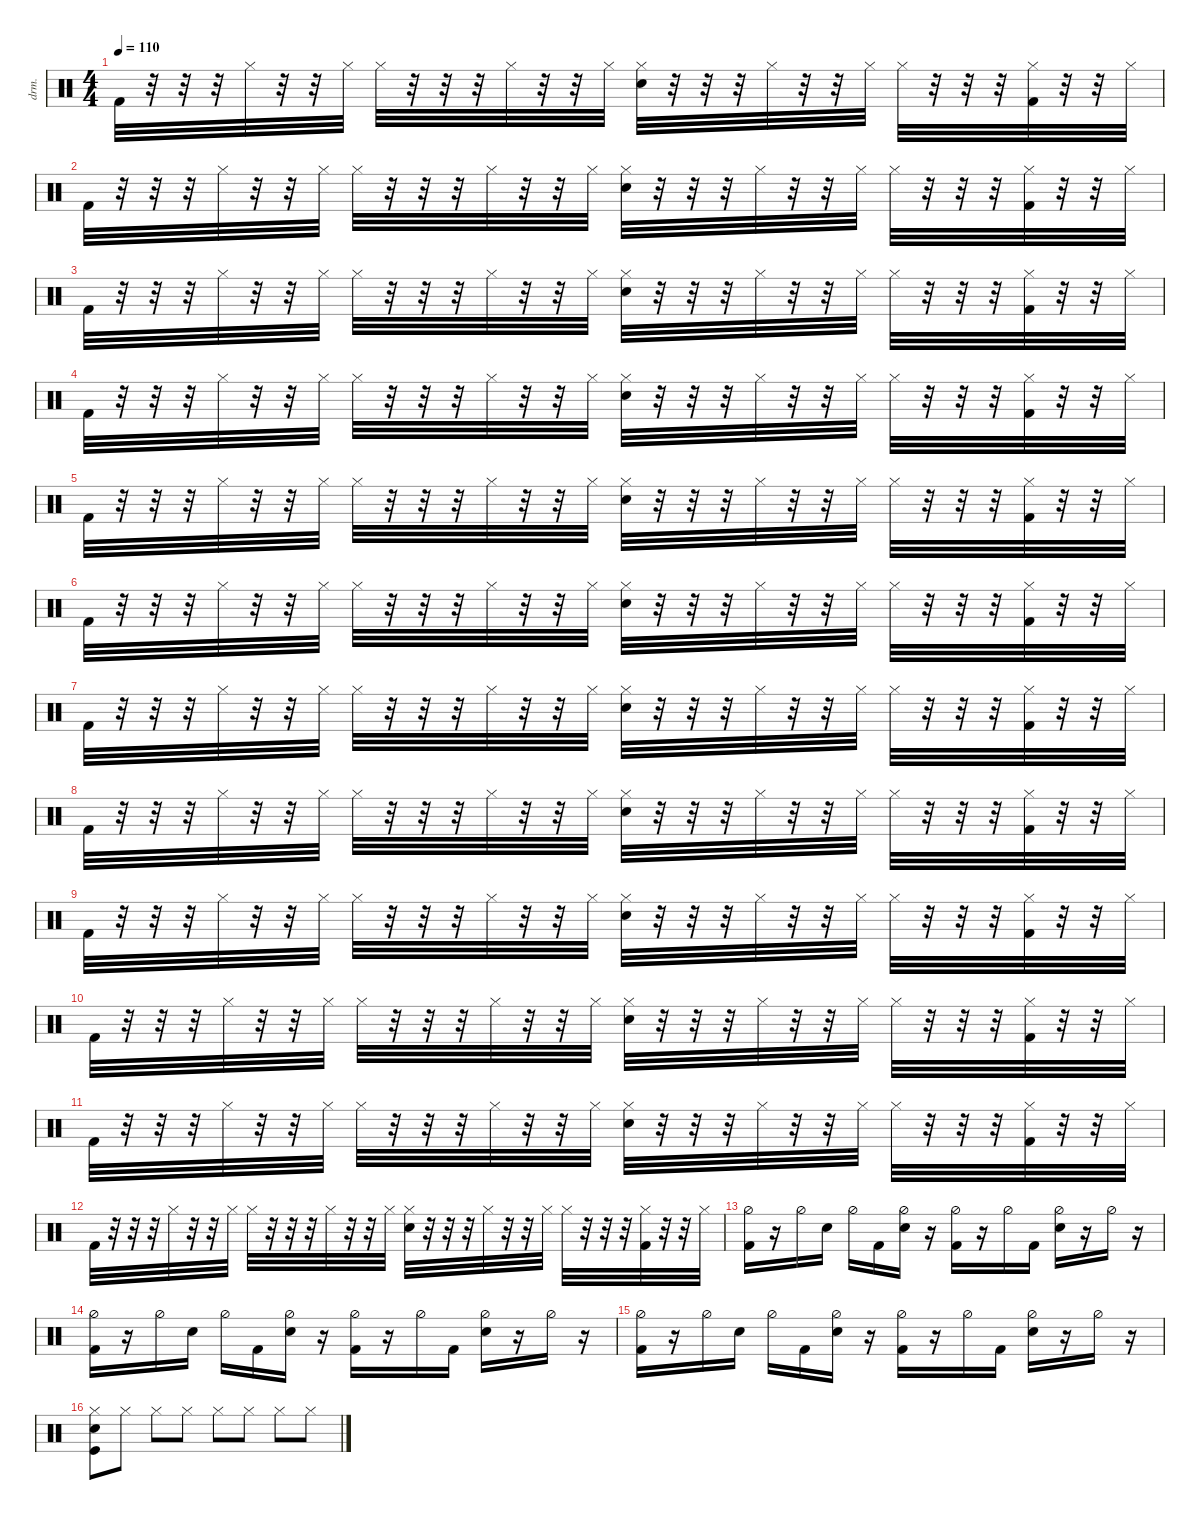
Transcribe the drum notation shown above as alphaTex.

\defaultSystemsLayout 4
\hideDynamics
\bracketExtendMode nobrackets
\otherSystemsTrackNameOrientation horizontal
\track ("Drumkit" "drm.") {instrument percussion}
\staff {score}
\articulation defaults
\ts (4 4)
\tempo 110
\clef neutral
\ks c "Kick (hit) 2".32{dy mf beam Down}
r.32{beam Down} r.32{beam Down} r.32{beam Down} "Hi-Hat (closed)".32{beam Down} r.32{beam Down} r.32{beam Down} "Hi-Hat (closed)".32{beam Down} "Hi-Hat (closed)".32{beam Down} r.32{beam Down} r.32{beam Down} r.32{beam Down} "Hi-Hat (closed)".32{beam Down} r.32{beam Down} r.32{beam Down} "Hi-Hat (closed)".32{beam Down} ("Snare (hit) 2" "Hi-Hat (closed)").32{beam Down} r.32{beam Down} r.32{beam Down} r.32{beam Down} "Hi-Hat (closed)".32{beam Down} r.32{beam Down} r.32{beam Down} "Hi-Hat (closed)".32{beam Down} "Hi-Hat (closed)".32{beam Down} r.32{beam Down} r.32{beam Down} r.32{beam Down} ("Hi-Hat (closed)" "Kick (hit) 2").32{beam Down} r.32{beam Down} r.32{beam Down} "Hi-Hat (closed)".32{beam Down} |
"Kick (hit) 2".32{beam Down} r.32{beam Down} r.32{beam Down} r.32{beam Down} "Hi-Hat (closed)".32{beam Down} r.32{beam Down} r.32{beam Down} "Hi-Hat (closed)".32{beam Down} "Hi-Hat (closed)".32{beam Down} r.32{beam Down} r.32{beam Down} r.32{beam Down} "Hi-Hat (closed)".32{beam Down} r.32{beam Down} r.32{beam Down} "Hi-Hat (closed)".32{beam Down} ("Snare (hit) 2" "Hi-Hat (closed)").32{beam Down} r.32{beam Down} r.32{beam Down} r.32{beam Down} "Hi-Hat (closed)".32{beam Down} r.32{beam Down} r.32{beam Down} "Hi-Hat (closed)".32{beam Down} "Hi-Hat (closed)".32{beam Down} r.32{beam Down} r.32{beam Down} r.32{beam Down} ("Hi-Hat (closed)" "Kick (hit) 2").32{beam Down} r.32{beam Down} r.32{beam Down} "Hi-Hat (closed)".32{beam Down} |
"Kick (hit) 2".32{beam Down} r.32{beam Down} r.32{beam Down} r.32{beam Down} "Hi-Hat (closed)".32{beam Down} r.32{beam Down} r.32{beam Down} "Hi-Hat (closed)".32{beam Down} "Hi-Hat (closed)".32{beam Down} r.32{beam Down} r.32{beam Down} r.32{beam Down} "Hi-Hat (closed)".32{beam Down} r.32{beam Down} r.32{beam Down} "Hi-Hat (closed)".32{beam Down} ("Snare (hit) 2" "Hi-Hat (closed)").32{beam Down} r.32{beam Down} r.32{beam Down} r.32{beam Down} "Hi-Hat (closed)".32{beam Down} r.32{beam Down} r.32{beam Down} "Hi-Hat (closed)".32{beam Down} "Hi-Hat (closed)".32{beam Down} r.32{beam Down} r.32{beam Down} r.32{beam Down} ("Hi-Hat (closed)" "Kick (hit) 2").32{beam Down} r.32{beam Down} r.32{beam Down} "Hi-Hat (closed)".32{beam Down} |
"Kick (hit) 2".32{beam Down} r.32{beam Down} r.32{beam Down} r.32{beam Down} "Hi-Hat (closed)".32{beam Down} r.32{beam Down} r.32{beam Down} "Hi-Hat (closed)".32{beam Down} "Hi-Hat (closed)".32{beam Down} r.32{beam Down} r.32{beam Down} r.32{beam Down} "Hi-Hat (closed)".32{beam Down} r.32{beam Down} r.32{beam Down} "Hi-Hat (closed)".32{beam Down} ("Snare (hit) 2" "Hi-Hat (closed)").32{beam Down} r.32{beam Down} r.32{beam Down} r.32{beam Down} "Hi-Hat (closed)".32{beam Down} r.32{beam Down} r.32{beam Down} "Hi-Hat (closed)".32{beam Down} "Hi-Hat (closed)".32{beam Down} r.32{beam Down} r.32{beam Down} r.32{beam Down} ("Hi-Hat (closed)" "Kick (hit) 2").32{beam Down} r.32{beam Down} r.32{beam Down} "Hi-Hat (closed)".32{beam Down} |
"Kick (hit) 2".32{beam Down} r.32{beam Down} r.32{beam Down} r.32{beam Down} "Hi-Hat (closed)".32{beam Down} r.32{beam Down} r.32{beam Down} "Hi-Hat (closed)".32{beam Down} "Hi-Hat (closed)".32{beam Down} r.32{beam Down} r.32{beam Down} r.32{beam Down} "Hi-Hat (closed)".32{beam Down} r.32{beam Down} r.32{beam Down} "Hi-Hat (closed)".32{beam Down} ("Snare (hit) 2" "Hi-Hat (closed)").32{beam Down} r.32{beam Down} r.32{beam Down} r.32{beam Down} "Hi-Hat (closed)".32{beam Down} r.32{beam Down} r.32{beam Down} "Hi-Hat (closed)".32{beam Down} "Hi-Hat (closed)".32{beam Down} r.32{beam Down} r.32{beam Down} r.32{beam Down} ("Hi-Hat (closed)" "Kick (hit) 2").32{beam Down} r.32{beam Down} r.32{beam Down} "Hi-Hat (closed)".32{beam Down} |
"Kick (hit) 2".32{beam Down} r.32{beam Down} r.32{beam Down} r.32{beam Down} "Hi-Hat (closed)".32{beam Down} r.32{beam Down} r.32{beam Down} "Hi-Hat (closed)".32{beam Down} "Hi-Hat (closed)".32{beam Down} r.32{beam Down} r.32{beam Down} r.32{beam Down} "Hi-Hat (closed)".32{beam Down} r.32{beam Down} r.32{beam Down} "Hi-Hat (closed)".32{beam Down} ("Snare (hit) 2" "Hi-Hat (closed)").32{beam Down} r.32{beam Down} r.32{beam Down} r.32{beam Down} "Hi-Hat (closed)".32{beam Down} r.32{beam Down} r.32{beam Down} "Hi-Hat (closed)".32{beam Down} "Hi-Hat (closed)".32{beam Down} r.32{beam Down} r.32{beam Down} r.32{beam Down} ("Hi-Hat (closed)" "Kick (hit) 2").32{beam Down} r.32{beam Down} r.32{beam Down} "Hi-Hat (closed)".32{beam Down} |
"Kick (hit) 2".32{beam Down} r.32{beam Down} r.32{beam Down} r.32{beam Down} "Hi-Hat (closed)".32{beam Down} r.32{beam Down} r.32{beam Down} "Hi-Hat (closed)".32{beam Down} "Hi-Hat (closed)".32{beam Down} r.32{beam Down} r.32{beam Down} r.32{beam Down} "Hi-Hat (closed)".32{beam Down} r.32{beam Down} r.32{beam Down} "Hi-Hat (closed)".32{beam Down} ("Snare (hit) 2" "Hi-Hat (closed)").32{beam Down} r.32{beam Down} r.32{beam Down} r.32{beam Down} "Hi-Hat (closed)".32{beam Down} r.32{beam Down} r.32{beam Down} "Hi-Hat (closed)".32{beam Down} "Hi-Hat (closed)".32{beam Down} r.32{beam Down} r.32{beam Down} r.32{beam Down} ("Hi-Hat (closed)" "Kick (hit) 2").32{beam Down} r.32{beam Down} r.32{beam Down} "Hi-Hat (closed)".32{beam Down} |
"Kick (hit) 2".32{beam Down} r.32{beam Down} r.32{beam Down} r.32{beam Down} "Hi-Hat (closed)".32{beam Down} r.32{beam Down} r.32{beam Down} "Hi-Hat (closed)".32{beam Down} "Hi-Hat (closed)".32{beam Down} r.32{beam Down} r.32{beam Down} r.32{beam Down} "Hi-Hat (closed)".32{beam Down} r.32{beam Down} r.32{beam Down} "Hi-Hat (closed)".32{beam Down} ("Snare (hit) 2" "Hi-Hat (closed)").32{beam Down} r.32{beam Down} r.32{beam Down} r.32{beam Down} "Hi-Hat (closed)".32{beam Down} r.32{beam Down} r.32{beam Down} "Hi-Hat (closed)".32{beam Down} "Hi-Hat (closed)".32{beam Down} r.32{beam Down} r.32{beam Down} r.32{beam Down} ("Hi-Hat (closed)" "Kick (hit) 2").32{beam Down} r.32{beam Down} r.32{beam Down} "Hi-Hat (closed)".32{beam Down} |
"Kick (hit) 2".32{beam Down} r.32{beam Down} r.32{beam Down} r.32{beam Down} "Hi-Hat (closed)".32{beam Down} r.32{beam Down} r.32{beam Down} "Hi-Hat (closed)".32{beam Down} "Hi-Hat (closed)".32{beam Down} r.32{beam Down} r.32{beam Down} r.32{beam Down} "Hi-Hat (closed)".32{beam Down} r.32{beam Down} r.32{beam Down} "Hi-Hat (closed)".32{beam Down} ("Snare (hit) 2" "Hi-Hat (closed)").32{beam Down} r.32{beam Down} r.32{beam Down} r.32{beam Down} "Hi-Hat (closed)".32{beam Down} r.32{beam Down} r.32{beam Down} "Hi-Hat (closed)".32{beam Down} "Hi-Hat (closed)".32{beam Down} r.32{beam Down} r.32{beam Down} r.32{beam Down} ("Hi-Hat (closed)" "Kick (hit) 2").32{beam Down} r.32{beam Down} r.32{beam Down} "Hi-Hat (closed)".32{beam Down} |
"Kick (hit) 2".32{beam Down} r.32{beam Down} r.32{beam Down} r.32{beam Down} "Hi-Hat (closed)".32{beam Down} r.32{beam Down} r.32{beam Down} "Hi-Hat (closed)".32{beam Down} "Hi-Hat (closed)".32{beam Down} r.32{beam Down} r.32{beam Down} r.32{beam Down} "Hi-Hat (closed)".32{beam Down} r.32{beam Down} r.32{beam Down} "Hi-Hat (closed)".32{beam Down} ("Snare (hit) 2" "Hi-Hat (closed)").32{beam Down} r.32{beam Down} r.32{beam Down} r.32{beam Down} "Hi-Hat (closed)".32{beam Down} r.32{beam Down} r.32{beam Down} "Hi-Hat (closed)".32{beam Down} "Hi-Hat (closed)".32{beam Down} r.32{beam Down} r.32{beam Down} r.32{beam Down} ("Hi-Hat (closed)" "Kick (hit) 2").32{beam Down} r.32{beam Down} r.32{beam Down} "Hi-Hat (closed)".32{beam Down} |
"Kick (hit) 2".32{beam Down} r.32{beam Down} r.32{beam Down} r.32{beam Down} "Hi-Hat (closed)".32{beam Down} r.32{beam Down} r.32{beam Down} "Hi-Hat (closed)".32{beam Down} "Hi-Hat (closed)".32{beam Down} r.32{beam Down} r.32{beam Down} r.32{beam Down} "Hi-Hat (closed)".32{beam Down} r.32{beam Down} r.32{beam Down} "Hi-Hat (closed)".32{beam Down} ("Snare (hit) 2" "Hi-Hat (closed)").32{beam Down} r.32{beam Down} r.32{beam Down} r.32{beam Down} "Hi-Hat (closed)".32{beam Down} r.32{beam Down} r.32{beam Down} "Hi-Hat (closed)".32{beam Down} "Hi-Hat (closed)".32{beam Down} r.32{beam Down} r.32{beam Down} r.32{beam Down} ("Hi-Hat (closed)" "Kick (hit) 2").32{beam Down} r.32{beam Down} r.32{beam Down} "Hi-Hat (closed)".32{beam Down} |
"Kick (hit) 2".32{beam Down} r.32{beam Down} r.32{beam Down} r.32{beam Down} "Hi-Hat (closed)".32{beam Down} r.32{beam Down} r.32{beam Down} "Hi-Hat (closed)".32{beam Down} "Hi-Hat (closed)".32{beam Down} r.32{beam Down} r.32{beam Down} r.32{beam Down} "Hi-Hat (closed)".32{beam Down} r.32{beam Down} r.32{beam Down} "Hi-Hat (closed)".32{beam Down} ("Snare (hit) 2" "Hi-Hat (closed)").32{beam Down} r.32{beam Down} r.32{beam Down} r.32{beam Down} "Hi-Hat (closed)".32{beam Down} r.32{beam Down} r.32{beam Down} "Hi-Hat (closed)".32{beam Down} "Hi-Hat (closed)".32{beam Down} r.32{beam Down} r.32{beam Down} r.32{beam Down} ("Hi-Hat (closed)" "Kick (hit) 2").32{beam Down} r.32{beam Down} r.32{beam Down} "Hi-Hat (closed)".32{beam Down} |
("Kick (hit) 2" "Hi-Hat (half)").16{beam Down} r.16{beam Down} "Hi-Hat (half)".16{beam Down} "Snare (hit) 2".16{beam Down} "Hi-Hat (half)".16{beam Down} "Kick (hit) 2".16{beam Down} ("Snare (hit) 2" "Hi-Hat (half)").16{beam Down} r.16{beam Down} ("Kick (hit) 2" "Hi-Hat (half)").16{beam Down} r.16{beam Down} "Hi-Hat (half)".16{beam Down} "Kick (hit) 2".16{beam Down} ("Snare (hit) 2" "Hi-Hat (half)").16{beam Down} r.16{beam Down} "Hi-Hat (half)".16{beam Down} r.16{beam Down} |
("Kick (hit) 2" "Hi-Hat (half)").16{beam Down} r.16{beam Down} "Hi-Hat (half)".16{beam Down} "Snare (hit) 2".16{beam Down} "Hi-Hat (half)".16{beam Down} "Kick (hit) 2".16{beam Down} ("Snare (hit) 2" "Hi-Hat (half)").16{beam Down} r.16{beam Down} ("Kick (hit) 2" "Hi-Hat (half)").16{beam Down} r.16{beam Down} "Hi-Hat (half)".16{beam Down} "Kick (hit) 2".16{beam Down} ("Snare (hit) 2" "Hi-Hat (half)").16{beam Down} r.16{beam Down} "Hi-Hat (half)".16{beam Down} r.16{beam Down} |
("Kick (hit) 2" "Hi-Hat (half)").16{beam Down} r.16{beam Down} "Hi-Hat (half)".16{beam Down} "Snare (hit) 2".16{beam Down} "Hi-Hat (half)".16{beam Down} "Kick (hit) 2".16{beam Down} ("Snare (hit) 2" "Hi-Hat (half)").16{beam Down} r.16{beam Down} ("Kick (hit) 2" "Hi-Hat (half)").16{beam Down} r.16{beam Down} "Hi-Hat (half)".16{beam Down} "Kick (hit) 2".16{beam Down} ("Snare (hit) 2" "Hi-Hat (half)").16{beam Down} r.16{beam Down} "Hi-Hat (half)".16{beam Down} r.16{beam Down} |
("Hi-Hat (closed)" "Snare (hit) 2" "Kick (hit)").8{beam Down} "Hi-Hat (closed)".8{beam Down} "Hi-Hat (closed)".8{beam Down} "Hi-Hat (closed)".8{beam Down} "Hi-Hat (closed)".8{beam Down} "Hi-Hat (closed)".8{beam Down} "Hi-Hat (closed)".8{beam Down} "Hi-Hat (closed)".8{beam Down}
